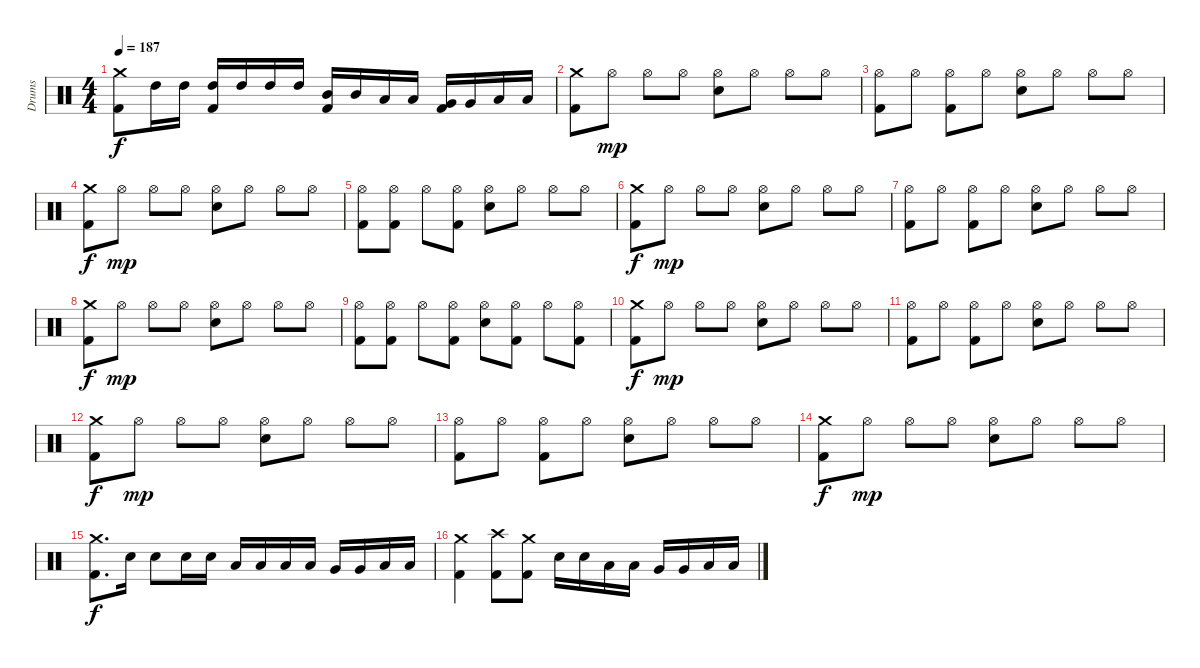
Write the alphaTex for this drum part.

\track ("Drums" "Drums") {instrument percussion}
\staff {score}
\articulation defaults
\ts (4 4)
\tempo 187
\clef neutral
\ks c
("Crash medium (hit)" "Kick (hit) 2").8{dy f} "High Tom (hit)".16 "High Tom (hit)".16 ("High Tom (hit)" "Kick (hit) 2").16 "High Tom (hit)".16 "High Tom (hit)".16 "High Tom (hit)".16 ("Mid Tom (hit)" "Kick (hit) 2").16 "Mid Tom (hit)".16 "Low Tom (hit)".16 "Low Tom (hit)".16 ("Very Low Tom (hit)" "Kick (hit) 2").16 "Very Low Tom (hit)".16 "Low Floor Tom (hit)".16 "Low Floor Tom (hit)".16 |
("Crash medium (hit)" "Kick (hit) 2").8 "Hi-Hat (open)".8{dy mp} "Hi-Hat (open)".8 "Hi-Hat (open)".8 ("Hi-Hat (open)" "Snare (hit) 2").8 "Hi-Hat (open)".8 "Hi-Hat (open)".8 "Hi-Hat (open)".8 |
("Hi-Hat (open)" "Kick (hit) 2").8 "Hi-Hat (open)".8 ("Hi-Hat (open)" "Kick (hit) 2").8 "Hi-Hat (open)".8 ("Hi-Hat (open)" "Snare (hit) 2").8 "Hi-Hat (open)".8 "Hi-Hat (open)".8 "Hi-Hat (open)".8 |
("Crash medium (hit)" "Kick (hit) 2").8{dy f} "Hi-Hat (open)".8{dy mp} "Hi-Hat (open)".8 "Hi-Hat (open)".8 ("Hi-Hat (open)" "Snare (hit) 2").8 "Hi-Hat (open)".8 "Hi-Hat (open)".8 "Hi-Hat (open)".8 |
("Hi-Hat (open)" "Kick (hit) 2").8 ("Hi-Hat (open)" "Kick (hit) 2").8 "Hi-Hat (open)".8 ("Hi-Hat (open)" "Kick (hit) 2").8 ("Hi-Hat (open)" "Snare (hit) 2").8 "Hi-Hat (open)".8 "Hi-Hat (open)".8 "Hi-Hat (open)".8 |
("Crash medium (hit)" "Kick (hit) 2").8{dy f} "Hi-Hat (open)".8{dy mp} "Hi-Hat (open)".8 "Hi-Hat (open)".8 ("Hi-Hat (open)" "Snare (hit) 2").8 "Hi-Hat (open)".8 "Hi-Hat (open)".8 "Hi-Hat (open)".8 |
("Hi-Hat (open)" "Kick (hit) 2").8 "Hi-Hat (open)".8 ("Hi-Hat (open)" "Kick (hit) 2").8 "Hi-Hat (open)".8 ("Hi-Hat (open)" "Snare (hit) 2").8 "Hi-Hat (open)".8 "Hi-Hat (open)".8 "Hi-Hat (open)".8 |
("Crash medium (hit)" "Kick (hit) 2").8{dy f} "Hi-Hat (open)".8{dy mp} "Hi-Hat (open)".8 "Hi-Hat (open)".8 ("Hi-Hat (open)" "Snare (hit) 2").8 "Hi-Hat (open)".8 "Hi-Hat (open)".8 "Hi-Hat (open)".8 |
("Hi-Hat (open)" "Kick (hit) 2").8 ("Hi-Hat (open)" "Kick (hit) 2").8 "Hi-Hat (open)".8 ("Hi-Hat (open)" "Kick (hit) 2").8 ("Hi-Hat (open)" "Snare (hit) 2").8 ("Hi-Hat (open)" "Kick (hit) 2").8 "Hi-Hat (open)".8 ("Hi-Hat (open)" "Kick (hit) 2").8 |
("Crash medium (hit)" "Kick (hit) 2").8{dy f} "Hi-Hat (open)".8{dy mp} "Hi-Hat (open)".8 "Hi-Hat (open)".8 ("Hi-Hat (open)" "Snare (hit) 2").8 "Hi-Hat (open)".8 "Hi-Hat (open)".8 "Hi-Hat (open)".8 |
("Hi-Hat (open)" "Kick (hit) 2").8 "Hi-Hat (open)".8 ("Hi-Hat (open)" "Kick (hit) 2").8 "Hi-Hat (open)".8 ("Hi-Hat (open)" "Snare (hit) 2").8 "Hi-Hat (open)".8 "Hi-Hat (open)".8 "Hi-Hat (open)".8 |
("Crash medium (hit)" "Kick (hit) 2").8{dy f} "Hi-Hat (open)".8{dy mp} "Hi-Hat (open)".8 "Hi-Hat (open)".8 ("Hi-Hat (open)" "Snare (hit) 2").8 "Hi-Hat (open)".8 "Hi-Hat (open)".8 "Hi-Hat (open)".8 |
("Hi-Hat (open)" "Kick (hit) 2").8 "Hi-Hat (open)".8 ("Hi-Hat (open)" "Kick (hit) 2").8 "Hi-Hat (open)".8 ("Hi-Hat (open)" "Snare (hit) 2").8 "Hi-Hat (open)".8 "Hi-Hat (open)".8 "Hi-Hat (open)".8 |
("Crash medium (hit)" "Kick (hit) 2").8{dy f} "Hi-Hat (open)".8{dy mp} "Hi-Hat (open)".8 "Hi-Hat (open)".8 ("Hi-Hat (open)" "Snare (hit) 2").8 "Hi-Hat (open)".8 "Hi-Hat (open)".8 "Hi-Hat (open)".8 |
("Crash medium (hit)" "Kick (hit) 2").8{d dy f} "Snare (hit) 2".16 "Snare (hit) 2".8 "Snare (hit) 2".16 "Snare (hit) 2".16 "Low Tom (hit)".16 "Low Tom (hit)".16 "Low Tom (hit)".16 "Low Tom (hit)".16 "Very Low Tom (hit)".16 "Very Low Tom (hit)".16 "Low Floor Tom (hit)".16 "Low Floor Tom (hit)".16 |
("Crash medium (hit)" "Kick (hit) 2").4 ("Crash high (hit)" "Kick (hit) 2").8 ("Crash medium (hit)" "Kick (hit) 2").8 "Snare (hit) 2".16 "Snare (hit) 2".16 "Low Tom (hit)".16 "Low Tom (hit)".16 "Very Low Tom (hit)".16 "Very Low Tom (hit)".16 "Low Floor Tom (hit)".16 "Low Floor Tom (hit)".16
